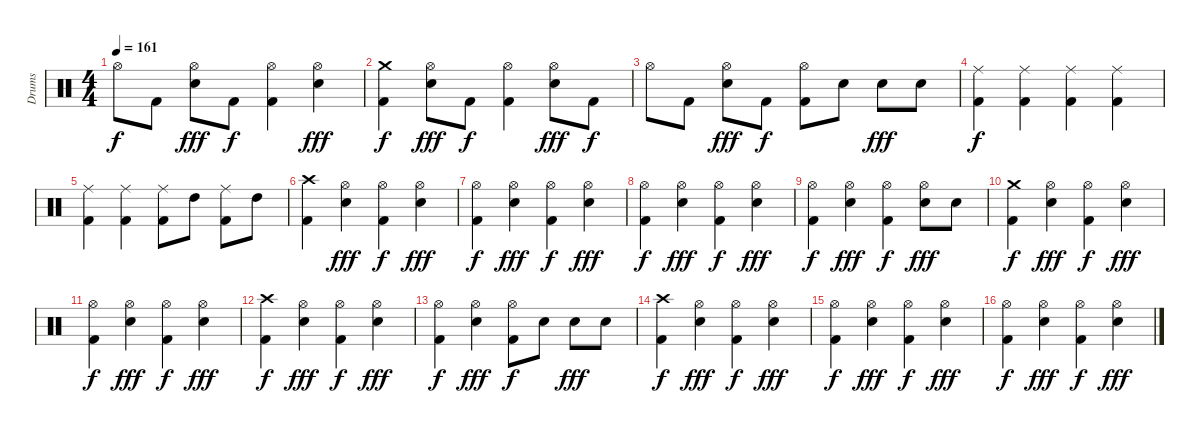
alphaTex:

\track ("Drums" "Drums") {instrument percussion}
\staff {score}
\articulation defaults
\ts (4 4)
\tempo 161
\clef neutral
\ks c "Hi-Hat (open)".8{dy f} "Kick (hit) 2".8
("Hi-Hat (open)" "Electric Snare (hit)").8{dy fff} "Kick (hit) 2".8{dy f} ("Hi-Hat (open)" "Kick (hit) 2").4 ("Hi-Hat (open)" "Electric Snare (hit)").4{dy fff} |
("Crash medium (hit)" "Kick (hit) 2").4{dy f} ("Hi-Hat (open)" "Electric Snare (hit)").8{dy fff} "Kick (hit) 2".8{dy f} ("Hi-Hat (open)" "Kick (hit) 2").4 ("Hi-Hat (open)" "Electric Snare (hit)").8{dy fff} "Kick (hit) 2".8{dy f} |
"Hi-Hat (open)".8 "Kick (hit) 2".8 ("Hi-Hat (open)" "Electric Snare (hit)").8{dy fff} "Kick (hit) 2".8{dy f} ("Hi-Hat (open)" "Kick (hit) 2").8 "Electric Snare (hit)".8 "Electric Snare (hit)".8{dy fff} "Electric Snare (hit)".8 |
("Ride (middle)" "Kick (hit) 2").4{dy f} ("Ride (middle)" "Kick (hit) 2").4 ("Ride (middle)" "Kick (hit) 2").4 ("Ride (middle)" "Kick (hit) 2").4 |
("Ride (middle)" "Kick (hit) 2").4 ("Ride (middle)" "Kick (hit) 2").4 ("Ride (middle)" "Kick (hit) 2").8 "High Tom (hit)".8 ("Ride (middle)" "Kick (hit) 2").8 "High Tom (hit)".8 |
("Crash high (hit)" "Kick (hit) 2").4 ("Hi-Hat (open)" "Electric Snare (hit)").4{dy fff} ("Hi-Hat (open)" "Kick (hit) 2").4{dy f} ("Hi-Hat (open)" "Electric Snare (hit)").4{dy fff} |
("Hi-Hat (open)" "Kick (hit) 2").4{dy f} ("Hi-Hat (open)" "Electric Snare (hit)").4{dy fff} ("Hi-Hat (open)" "Kick (hit) 2").4{dy f} ("Hi-Hat (open)" "Electric Snare (hit)").4{dy fff} |
("Hi-Hat (open)" "Kick (hit) 2").4{dy f} ("Hi-Hat (open)" "Electric Snare (hit)").4{dy fff} ("Hi-Hat (open)" "Kick (hit) 2").4{dy f} ("Hi-Hat (open)" "Electric Snare (hit)").4{dy fff} |
("Hi-Hat (open)" "Kick (hit) 2").4{dy f} ("Hi-Hat (open)" "Electric Snare (hit)").4{dy fff} ("Hi-Hat (open)" "Kick (hit) 2").4{dy f} ("Hi-Hat (open)" "Electric Snare (hit)").8{dy fff} "Electric Snare (hit)".8 |
("Crash medium (hit)" "Kick (hit) 2").4{dy f} ("Hi-Hat (open)" "Electric Snare (hit)").4{dy fff} ("Hi-Hat (open)" "Kick (hit) 2").4{dy f} ("Hi-Hat (open)" "Electric Snare (hit)").4{dy fff} |
("Hi-Hat (open)" "Kick (hit) 2").4{dy f} ("Hi-Hat (open)" "Electric Snare (hit)").4{dy fff} ("Hi-Hat (open)" "Kick (hit) 2").4{dy f} ("Hi-Hat (open)" "Electric Snare (hit)").4{dy fff} |
("Crash high (hit)" "Kick (hit) 2").4{dy f} ("Hi-Hat (open)" "Electric Snare (hit)").4{dy fff} ("Hi-Hat (open)" "Kick (hit) 2").4{dy f} ("Hi-Hat (open)" "Electric Snare (hit)").4{dy fff} |
("Hi-Hat (open)" "Kick (hit) 2").4{dy f} ("Hi-Hat (open)" "Electric Snare (hit)").4{dy fff} ("Hi-Hat (open)" "Kick (hit) 2").8{dy f} "Electric Snare (hit)".8 "Electric Snare (hit)".8{dy fff} "Electric Snare (hit)".8 |
("Crash high (hit)" "Kick (hit) 2").4{dy f} ("Hi-Hat (open)" "Electric Snare (hit)").4{dy fff} ("Hi-Hat (open)" "Kick (hit) 2").4{dy f} ("Hi-Hat (open)" "Electric Snare (hit)").4{dy fff} |
("Hi-Hat (open)" "Kick (hit) 2").4{dy f} ("Hi-Hat (open)" "Electric Snare (hit)").4{dy fff} ("Hi-Hat (open)" "Kick (hit) 2").4{dy f} ("Hi-Hat (open)" "Electric Snare (hit)").4{dy fff} |
("Hi-Hat (open)" "Kick (hit) 2").4{dy f} ("Hi-Hat (open)" "Electric Snare (hit)").4{dy fff} ("Hi-Hat (open)" "Kick (hit) 2").4{dy f} ("Hi-Hat (open)" "Electric Snare (hit)").4{dy fff}
